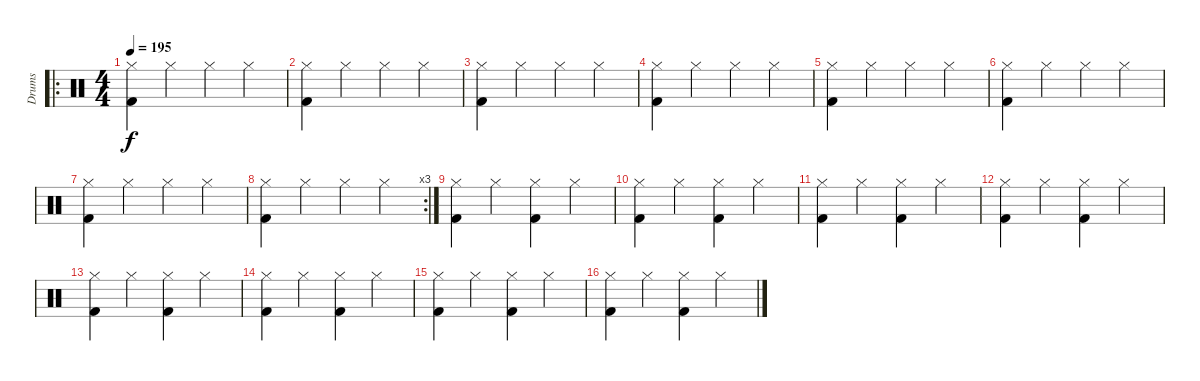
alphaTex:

\track ("Drums" "Drums") {instrument percussion}
\staff {score}
\articulation defaults
\ro
\ts (4 4)
\tempo 195
\clef neutral
\ks c
("Hi-Hat (closed)" "Kick (hit) 2").4{dy f} "Hi-Hat (closed)".4 "Hi-Hat (closed)".4 "Hi-Hat (closed)".4 |
("Hi-Hat (closed)" "Kick (hit) 2").4 "Hi-Hat (closed)".4 "Hi-Hat (closed)".4 "Hi-Hat (closed)".4 |
("Hi-Hat (closed)" "Kick (hit) 2").4 "Hi-Hat (closed)".4 "Hi-Hat (closed)".4 "Hi-Hat (closed)".4 |
("Hi-Hat (closed)" "Kick (hit) 2").4 "Hi-Hat (closed)".4 "Hi-Hat (closed)".4 "Hi-Hat (closed)".4 |
("Hi-Hat (closed)" "Kick (hit) 2").4 "Hi-Hat (closed)".4 "Hi-Hat (closed)".4 "Hi-Hat (closed)".4 |
("Hi-Hat (closed)" "Kick (hit) 2").4 "Hi-Hat (closed)".4 "Hi-Hat (closed)".4 "Hi-Hat (closed)".4 |
("Hi-Hat (closed)" "Kick (hit) 2").4 "Hi-Hat (closed)".4 "Hi-Hat (closed)".4 "Hi-Hat (closed)".4 |
\rc 3
("Hi-Hat (closed)" "Kick (hit) 2").4 "Hi-Hat (closed)".4 "Hi-Hat (closed)".4 "Hi-Hat (closed)".4 |
("Hi-Hat (closed)" "Kick (hit) 2").4 "Hi-Hat (closed)".4 ("Hi-Hat (closed)" "Kick (hit) 2").4 "Hi-Hat (closed)".4 |
("Hi-Hat (closed)" "Kick (hit) 2").4 "Hi-Hat (closed)".4 ("Hi-Hat (closed)" "Kick (hit) 2").4 "Hi-Hat (closed)".4 |
("Hi-Hat (closed)" "Kick (hit) 2").4 "Hi-Hat (closed)".4 ("Hi-Hat (closed)" "Kick (hit) 2").4 "Hi-Hat (closed)".4 |
("Hi-Hat (closed)" "Kick (hit) 2").4 "Hi-Hat (closed)".4 ("Hi-Hat (closed)" "Kick (hit) 2").4 "Hi-Hat (closed)".4 |
("Hi-Hat (closed)" "Kick (hit) 2").4 "Hi-Hat (closed)".4 ("Hi-Hat (closed)" "Kick (hit) 2").4 "Hi-Hat (closed)".4 |
("Hi-Hat (closed)" "Kick (hit) 2").4 "Hi-Hat (closed)".4 ("Hi-Hat (closed)" "Kick (hit) 2").4 "Hi-Hat (closed)".4 |
("Hi-Hat (closed)" "Kick (hit) 2").4 "Hi-Hat (closed)".4 ("Hi-Hat (closed)" "Kick (hit) 2").4 "Hi-Hat (closed)".4 |
("Hi-Hat (closed)" "Kick (hit) 2").4 "Hi-Hat (closed)".4 ("Hi-Hat (closed)" "Kick (hit) 2").4 "Hi-Hat (closed)".4
